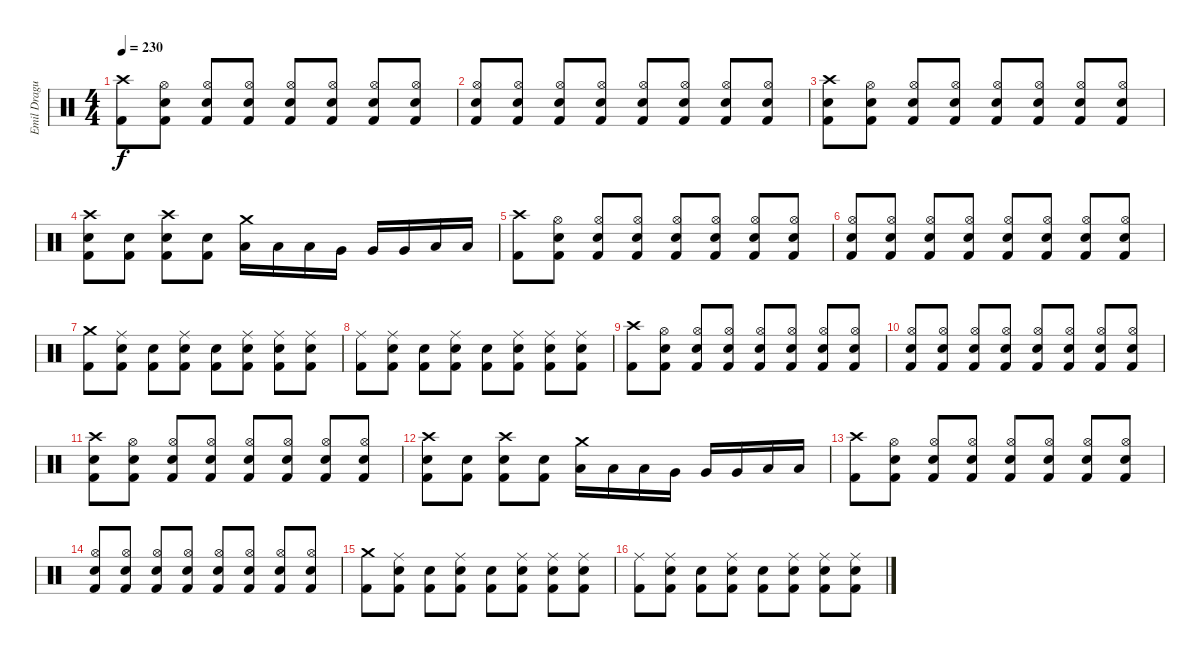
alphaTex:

\track ("Emil Dragutinovic" "Emil Dragu") {instrument percussion}
\staff {score}
\articulation defaults
\ts (4 4)
\tempo 230
\clef neutral
\ks c
("Crash high (hit)" "Kick (hit) 2").8{dy f} ("Hi-Hat (open)" "Electric Snare (hit)" "Kick (hit) 2").8 ("Hi-Hat (open)" "Electric Snare (hit)" "Kick (hit) 2").8 ("Hi-Hat (open)" "Electric Snare (hit)" "Kick (hit) 2").8 ("Hi-Hat (open)" "Electric Snare (hit)" "Kick (hit) 2").8 ("Hi-Hat (open)" "Electric Snare (hit)" "Kick (hit) 2").8 ("Hi-Hat (open)" "Electric Snare (hit)" "Kick (hit) 2").8 ("Hi-Hat (open)" "Electric Snare (hit)" "Kick (hit) 2").8 |
("Hi-Hat (open)" "Electric Snare (hit)" "Kick (hit) 2").8 ("Hi-Hat (open)" "Electric Snare (hit)" "Kick (hit) 2").8 ("Hi-Hat (open)" "Electric Snare (hit)" "Kick (hit) 2").8 ("Hi-Hat (open)" "Electric Snare (hit)" "Kick (hit) 2").8 ("Hi-Hat (open)" "Electric Snare (hit)" "Kick (hit) 2").8 ("Hi-Hat (open)" "Electric Snare (hit)" "Kick (hit) 2").8 ("Hi-Hat (open)" "Electric Snare (hit)" "Kick (hit) 2").8 ("Hi-Hat (open)" "Electric Snare (hit)" "Kick (hit) 2").8 |
("Crash high (hit)" "Electric Snare (hit)" "Kick (hit) 2").8 ("Hi-Hat (open)" "Electric Snare (hit)" "Kick (hit) 2").8 ("Hi-Hat (open)" "Electric Snare (hit)" "Kick (hit) 2").8 ("Hi-Hat (open)" "Electric Snare (hit)" "Kick (hit) 2").8 ("Hi-Hat (open)" "Electric Snare (hit)" "Kick (hit) 2").8 ("Hi-Hat (open)" "Electric Snare (hit)" "Kick (hit) 2").8 ("Hi-Hat (open)" "Electric Snare (hit)" "Kick (hit) 2").8 ("Hi-Hat (open)" "Electric Snare (hit)" "Kick (hit) 2").8 |
("Crash high (hit)" "Electric Snare (hit)" "Kick (hit) 2").8 ("Electric Snare (hit)" "Kick (hit) 2").8 ("Crash high (hit)" "Electric Snare (hit)" "Kick (hit) 2").8 ("Electric Snare (hit)" "Kick (hit) 2").8 ("Crash medium (hit)" "Low Tom (hit)").16 "Low Tom (hit)".16 "Low Tom (hit)".16 "Very Low Tom (hit)".16 "Very Low Tom (hit)".16 "Very Low Tom (hit)".16 "Low Floor Tom (hit)".16 "Low Floor Tom (hit)".16 |
("Crash high (hit)" "Kick (hit) 2").8 ("Hi-Hat (open)" "Electric Snare (hit)" "Kick (hit) 2").8 ("Hi-Hat (open)" "Electric Snare (hit)" "Kick (hit) 2").8 ("Hi-Hat (open)" "Electric Snare (hit)" "Kick (hit) 2").8 ("Hi-Hat (open)" "Electric Snare (hit)" "Kick (hit) 2").8 ("Hi-Hat (open)" "Electric Snare (hit)" "Kick (hit) 2").8 ("Hi-Hat (open)" "Electric Snare (hit)" "Kick (hit) 2").8 ("Hi-Hat (open)" "Electric Snare (hit)" "Kick (hit) 2").8 |
("Hi-Hat (open)" "Electric Snare (hit)" "Kick (hit) 2").8 ("Hi-Hat (open)" "Electric Snare (hit)" "Kick (hit) 2").8 ("Hi-Hat (open)" "Electric Snare (hit)" "Kick (hit) 2").8 ("Hi-Hat (open)" "Electric Snare (hit)" "Kick (hit) 2").8 ("Hi-Hat (open)" "Electric Snare (hit)" "Kick (hit) 2").8 ("Hi-Hat (open)" "Electric Snare (hit)" "Kick (hit) 2").8 ("Hi-Hat (open)" "Electric Snare (hit)" "Kick (hit) 2").8 ("Hi-Hat (open)" "Electric Snare (hit)" "Kick (hit) 2").8 |
("Crash medium (hit)" "Kick (hit) 2").8 ("Ride (middle)" "Electric Snare (hit)" "Kick (hit) 2").8 ("Electric Snare (hit)" "Kick (hit) 2").8 ("Ride (middle)" "Electric Snare (hit)" "Kick (hit) 2").8 ("Electric Snare (hit)" "Kick (hit) 2").8 ("Ride (middle)" "Electric Snare (hit)" "Kick (hit) 2").8 ("Ride (middle)" "Electric Snare (hit)" "Kick (hit) 2").8 ("Ride (middle)" "Electric Snare (hit)" "Kick (hit) 2").8 |
("Ride (middle)" "Kick (hit) 2").8 ("Ride (middle)" "Electric Snare (hit)" "Kick (hit) 2").8 ("Electric Snare (hit)" "Kick (hit) 2").8 ("Ride (middle)" "Electric Snare (hit)" "Kick (hit) 2").8 ("Electric Snare (hit)" "Kick (hit) 2").8 ("Ride (middle)" "Electric Snare (hit)" "Kick (hit) 2").8 ("Ride (middle)" "Electric Snare (hit)" "Kick (hit) 2").8 ("Ride (middle)" "Electric Snare (hit)" "Kick (hit) 2").8 |
("Crash high (hit)" "Kick (hit) 2").8 ("Hi-Hat (open)" "Electric Snare (hit)" "Kick (hit) 2").8 ("Hi-Hat (open)" "Electric Snare (hit)" "Kick (hit) 2").8 ("Hi-Hat (open)" "Electric Snare (hit)" "Kick (hit) 2").8 ("Hi-Hat (open)" "Electric Snare (hit)" "Kick (hit) 2").8 ("Hi-Hat (open)" "Electric Snare (hit)" "Kick (hit) 2").8 ("Hi-Hat (open)" "Electric Snare (hit)" "Kick (hit) 2").8 ("Hi-Hat (open)" "Electric Snare (hit)" "Kick (hit) 2").8 |
("Hi-Hat (open)" "Electric Snare (hit)" "Kick (hit) 2").8 ("Hi-Hat (open)" "Electric Snare (hit)" "Kick (hit) 2").8 ("Hi-Hat (open)" "Electric Snare (hit)" "Kick (hit) 2").8 ("Hi-Hat (open)" "Electric Snare (hit)" "Kick (hit) 2").8 ("Hi-Hat (open)" "Electric Snare (hit)" "Kick (hit) 2").8 ("Hi-Hat (open)" "Electric Snare (hit)" "Kick (hit) 2").8 ("Hi-Hat (open)" "Electric Snare (hit)" "Kick (hit) 2").8 ("Hi-Hat (open)" "Electric Snare (hit)" "Kick (hit) 2").8 |
("Crash high (hit)" "Electric Snare (hit)" "Kick (hit) 2").8 ("Hi-Hat (open)" "Electric Snare (hit)" "Kick (hit) 2").8 ("Hi-Hat (open)" "Electric Snare (hit)" "Kick (hit) 2").8 ("Hi-Hat (open)" "Electric Snare (hit)" "Kick (hit) 2").8 ("Hi-Hat (open)" "Electric Snare (hit)" "Kick (hit) 2").8 ("Hi-Hat (open)" "Electric Snare (hit)" "Kick (hit) 2").8 ("Hi-Hat (open)" "Electric Snare (hit)" "Kick (hit) 2").8 ("Hi-Hat (open)" "Electric Snare (hit)" "Kick (hit) 2").8 |
("Crash high (hit)" "Electric Snare (hit)" "Kick (hit) 2").8 ("Electric Snare (hit)" "Kick (hit) 2").8 ("Crash high (hit)" "Electric Snare (hit)" "Kick (hit) 2").8 ("Electric Snare (hit)" "Kick (hit) 2").8 ("Crash medium (hit)" "Low Tom (hit)").16 "Low Tom (hit)".16 "Low Tom (hit)".16 "Very Low Tom (hit)".16 "Very Low Tom (hit)".16 "Very Low Tom (hit)".16 "Low Floor Tom (hit)".16 "Low Floor Tom (hit)".16 |
("Crash high (hit)" "Kick (hit) 2").8 ("Hi-Hat (open)" "Electric Snare (hit)" "Kick (hit) 2").8 ("Hi-Hat (open)" "Electric Snare (hit)" "Kick (hit) 2").8 ("Hi-Hat (open)" "Electric Snare (hit)" "Kick (hit) 2").8 ("Hi-Hat (open)" "Electric Snare (hit)" "Kick (hit) 2").8 ("Hi-Hat (open)" "Electric Snare (hit)" "Kick (hit) 2").8 ("Hi-Hat (open)" "Electric Snare (hit)" "Kick (hit) 2").8 ("Hi-Hat (open)" "Electric Snare (hit)" "Kick (hit) 2").8 |
("Hi-Hat (open)" "Electric Snare (hit)" "Kick (hit) 2").8 ("Hi-Hat (open)" "Electric Snare (hit)" "Kick (hit) 2").8 ("Hi-Hat (open)" "Electric Snare (hit)" "Kick (hit) 2").8 ("Hi-Hat (open)" "Electric Snare (hit)" "Kick (hit) 2").8 ("Hi-Hat (open)" "Electric Snare (hit)" "Kick (hit) 2").8 ("Hi-Hat (open)" "Electric Snare (hit)" "Kick (hit) 2").8 ("Hi-Hat (open)" "Electric Snare (hit)" "Kick (hit) 2").8 ("Hi-Hat (open)" "Electric Snare (hit)" "Kick (hit) 2").8 |
("Crash medium (hit)" "Kick (hit) 2").8 ("Ride (middle)" "Electric Snare (hit)" "Kick (hit) 2").8 ("Electric Snare (hit)" "Kick (hit) 2").8 ("Ride (middle)" "Electric Snare (hit)" "Kick (hit) 2").8 ("Electric Snare (hit)" "Kick (hit) 2").8 ("Ride (middle)" "Electric Snare (hit)" "Kick (hit) 2").8 ("Ride (middle)" "Electric Snare (hit)" "Kick (hit) 2").8 ("Ride (middle)" "Electric Snare (hit)" "Kick (hit) 2").8 |
("Ride (middle)" "Kick (hit) 2").8 ("Ride (middle)" "Electric Snare (hit)" "Kick (hit) 2").8 ("Electric Snare (hit)" "Kick (hit) 2").8 ("Ride (middle)" "Electric Snare (hit)" "Kick (hit) 2").8 ("Electric Snare (hit)" "Kick (hit) 2").8 ("Ride (middle)" "Electric Snare (hit)" "Kick (hit) 2").8 ("Ride (middle)" "Electric Snare (hit)" "Kick (hit) 2").8 ("Ride (middle)" "Electric Snare (hit)" "Kick (hit) 2").8
